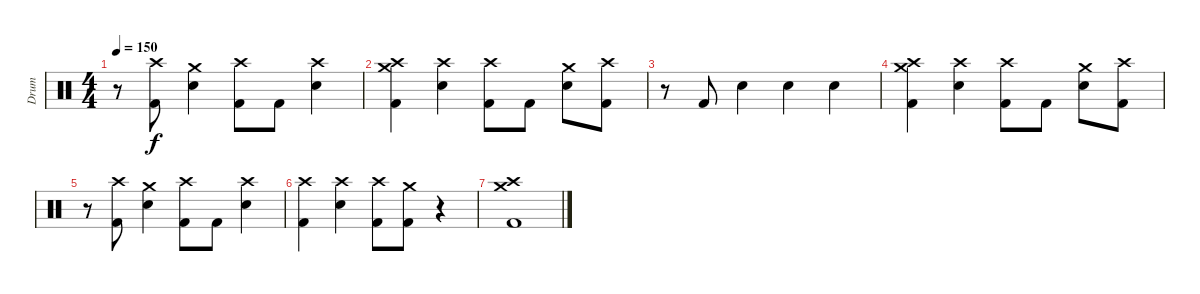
\track ("Drum" "Drum") {instrument percussion}
\staff {score}
\articulation defaults
\ts (4 4)
\tempo 150
\clef neutral
\ks c
r.8{dy f} ("Crash high (hit)" "Kick (hit) 2").8 ("Crash medium (hit)" "Electric Snare (hit)").4 ("Crash high (hit)" "Kick (hit) 2").8 "Kick (hit) 2".8 ("Crash high (hit)" "Electric Snare (hit)").4 |
("Crash high (hit)" "Crash medium (hit)" "Kick (hit) 2").4 ("Crash high (hit)" "Electric Snare (hit)").4 ("Crash high (hit)" "Kick (hit) 2").8 "Kick (hit) 2".8 ("Crash medium (hit)" "Electric Snare (hit)").8 ("Crash high (hit)" "Kick (hit) 2").8 |
r.8 "Kick (hit) 2".8 "Electric Snare (hit)".4 "Electric Snare (hit)".4 "Electric Snare (hit)".4 |
("Crash high (hit)" "Crash medium (hit)" "Kick (hit) 2").4 ("Crash high (hit)" "Electric Snare (hit)").4 ("Crash high (hit)" "Kick (hit) 2").8 "Kick (hit) 2".8 ("Crash medium (hit)" "Electric Snare (hit)").8 ("Crash high (hit)" "Kick (hit) 2").8 |
r.8 ("Crash high (hit)" "Kick (hit) 2").8 ("Crash medium (hit)" "Electric Snare (hit)").4 ("Crash high (hit)" "Kick (hit) 2").8 "Kick (hit) 2".8 ("Crash high (hit)" "Electric Snare (hit)").4 |
("Crash high (hit)" "Kick (hit) 2").4 ("Crash high (hit)" "Electric Snare (hit)").4 ("Crash high (hit)" "Kick (hit) 2").8 ("Crash medium (hit)" "Kick (hit) 2").8 r.4 |
("Crash high (hit)" "Crash medium (hit)" "Kick (hit) 2").1
